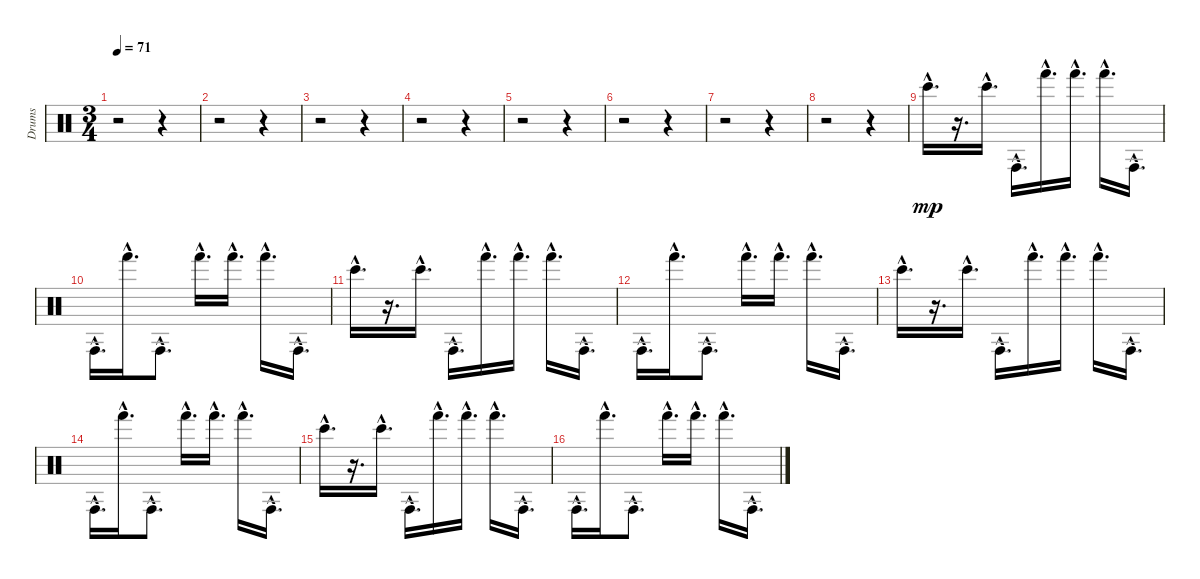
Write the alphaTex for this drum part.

\track ("Drums" "Drums") {instrument percussion}
\staff {score}
\articulation defaults
\ts (3 4)
\tempo 71
\clef neutral
\ks c
r.2{dy mp} r.4 |
r.2 r.4 |
r.2 r.4 |
r.2 r.4 |
r.2 r.4 |
r.2 r.4 |
r.2 r.4 |
r.2 r.4 |
"Bongo High (hit)"{hac}.16{d} r.16{d} "Bongo High (hit)"{hac}.16{d} "Conga high (hit)"{hac}.16{d} "Hand (hit)"{hac}.16{d} "Hand (hit)"{hac}.16{d} "Hand (hit)"{hac}.16{d} "Conga high (hit)"{hac}.16{d} |
"Conga high (hit)"{hac}.16{d} "Hand (hit)"{hac}.16{d} "Conga high (hit)"{hac}.8{d} "Hand (hit)"{hac}.16{d} "Hand (hit)"{hac}.16{d} "Hand (hit)"{hac}.16{d} "Conga high (hit)"{hac}.16{d} |
"Bongo High (hit)"{hac}.16{d} r.16{d} "Bongo High (hit)"{hac}.16{d} "Conga high (hit)"{hac}.16{d} "Hand (hit)"{hac}.16{d} "Hand (hit)"{hac}.16{d} "Hand (hit)"{hac}.16{d} "Conga high (hit)"{hac}.16{d} |
"Conga high (hit)"{hac}.16{d} "Hand (hit)"{hac}.16{d} "Conga high (hit)"{hac}.8{d} "Hand (hit)"{hac}.16{d} "Hand (hit)"{hac}.16{d} "Hand (hit)"{hac}.16{d} "Conga high (hit)"{hac}.16{d} |
"Bongo High (hit)"{hac}.16{d} r.16{d} "Bongo High (hit)"{hac}.16{d} "Conga high (hit)"{hac}.16{d} "Hand (hit)"{hac}.16{d} "Hand (hit)"{hac}.16{d} "Hand (hit)"{hac}.16{d} "Conga high (hit)"{hac}.16{d} |
"Conga high (hit)"{hac}.16{d} "Hand (hit)"{hac}.16{d} "Conga high (hit)"{hac}.8{d} "Hand (hit)"{hac}.16{d} "Hand (hit)"{hac}.16{d} "Hand (hit)"{hac}.16{d} "Conga high (hit)"{hac}.16{d} |
"Bongo High (hit)"{hac}.16{d} r.16{d} "Bongo High (hit)"{hac}.16{d} "Conga high (hit)"{hac}.16{d} "Hand (hit)"{hac}.16{d} "Hand (hit)"{hac}.16{d} "Hand (hit)"{hac}.16{d} "Conga high (hit)"{hac}.16{d} |
"Conga high (hit)"{hac}.16{d} "Hand (hit)"{hac}.16{d} "Conga high (hit)"{hac}.8{d} "Hand (hit)"{hac}.16{d} "Hand (hit)"{hac}.16{d} "Hand (hit)"{hac}.16{d} "Conga high (hit)"{hac}.16{d}
